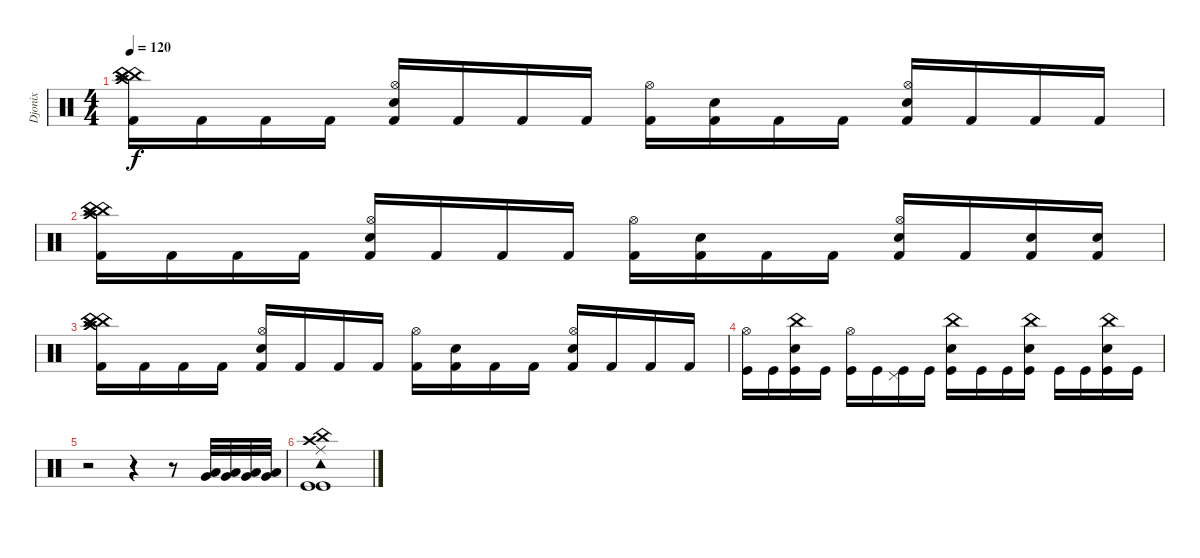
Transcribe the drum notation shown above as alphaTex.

\track ("Djonix" "Djonix") {instrument percussion}
\staff {score}
\articulation defaults
\ts (4 4)
\tempo 120
\clef neutral
\ks c
("China (hit)" "Crash high (hit)" "China (hit)" "China (hit)" "Kick (hit) 2").16{dy f} "Kick (hit) 2".16 "Kick (hit) 2".16 "Kick (hit) 2".16 ("Hi-Hat (open)" "Snare (hit) 2" "Kick (hit) 2").16 "Kick (hit) 2".16 "Kick (hit) 2".16 "Kick (hit) 2".16 ("Hi-Hat (open)" "Kick (hit) 2").16 ("Snare (hit) 2" "Kick (hit) 2").16 "Kick (hit) 2".16 "Kick (hit) 2".16 ("Hi-Hat (open)" "Snare (hit) 2" "Kick (hit) 2").16 "Kick (hit) 2".16 "Kick (hit) 2".16 "Kick (hit) 2".16 |
("China (hit)" "Crash high (hit)" "China (hit)" "China (hit)" "Kick (hit) 2").16 "Kick (hit) 2".16 "Kick (hit) 2".16 "Kick (hit) 2".16 ("Hi-Hat (open)" "Snare (hit) 2" "Kick (hit) 2").16 "Kick (hit) 2".16 "Kick (hit) 2".16 "Kick (hit) 2".16 ("Hi-Hat (open)" "Kick (hit) 2").16 ("Snare (hit) 2" "Kick (hit) 2").16 "Kick (hit) 2".16 "Kick (hit) 2".16 ("Hi-Hat (open)" "Snare (hit) 2" "Kick (hit) 2").16 "Kick (hit) 2".16 ("Snare (hit) 2" "Kick (hit) 2").16 ("Snare (hit) 2" "Kick (hit) 2").16 |
("China (hit)" "Crash high (hit)" "China (hit)" "China (hit)" "Kick (hit) 2").16 "Kick (hit) 2".16 "Kick (hit) 2".16 "Kick (hit) 2".16 ("Hi-Hat (open)" "Snare (hit) 2" "Kick (hit) 2").16 "Kick (hit) 2".16 "Kick (hit) 2".16 "Kick (hit) 2".16 ("Hi-Hat (open)" "Kick (hit) 2").16 ("Snare (hit) 2" "Kick (hit) 2").16 "Kick (hit) 2".16 "Kick (hit) 2".16 ("Hi-Hat (open)" "Snare (hit) 2" "Kick (hit) 2").16 "Kick (hit) 2".16 "Kick (hit) 2".16 "Kick (hit) 2".16 |
("Hi-Hat (open)" "Kick (hit)").16 "Kick (hit)".16 ("China (hit)" "Snare (hit) 2" "Kick (hit)").16 "Kick (hit)".16 ("Hi-Hat (open)" "Kick (hit)").16 "Kick (hit)".16 ("Pedal Hi-Hat (hit)" "Kick (hit)").16 "Kick (hit)".16 ("China (hit)" "Snare (hit) 2" "Kick (hit)").16 "Kick (hit)".16 "Kick (hit)".16 ("China (hit)" "Snare (hit) 2" "Kick (hit)").16 "Kick (hit)".16 "Kick (hit)".16 ("China (hit)" "Snare (hit) 2" "Kick (hit)").16 "Kick (hit)".16 |
r.2 r.4 r.8 ("Very Low Tom (hit)" "Low Floor Tom (hit)").32 ("Very Low Tom (hit)" "Low Floor Tom (hit)").32 ("Very Low Tom (hit)" "Low Floor Tom (hit)").32 ("Very Low Tom (hit)" "Low Floor Tom (hit)").32 |
("China (hit)" "Ride (middle)" "Tambourine (hit)" "Crash high (hit)" "Kick (hit)" "Kick (hit)").1
